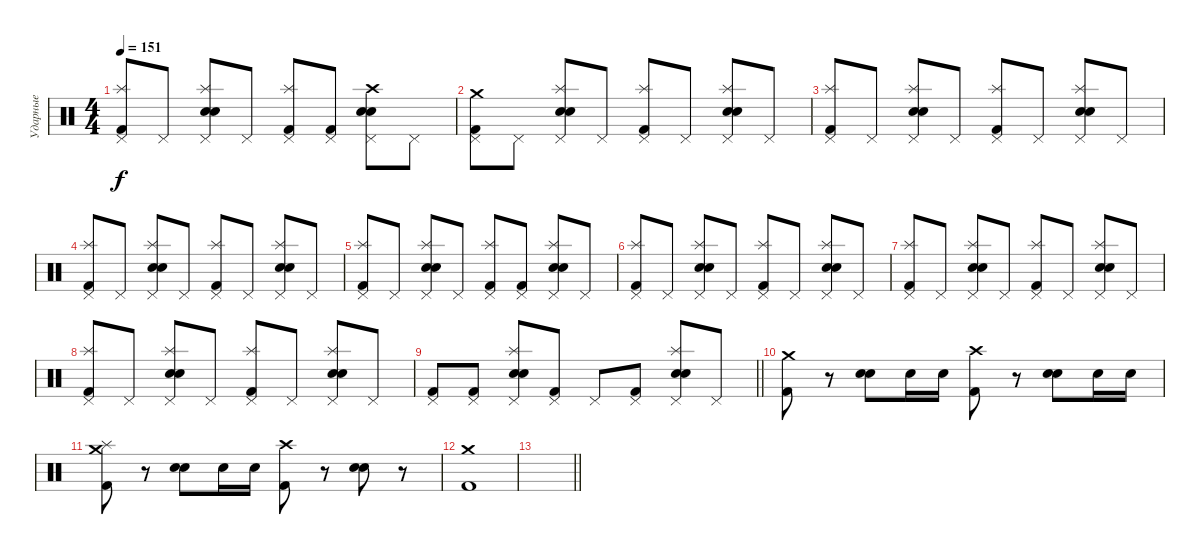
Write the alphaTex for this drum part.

\track ("Ударные" "Ударные") {instrument percussion}
\staff {score}
\articulation defaults
\ts (4 4)
\tempo 151
\clef neutral
\ks c
("Pedal Hi-Hat (hit)" "Splash (hit)" "Kick (hit) 2").8{dy f} "Pedal Hi-Hat (hit)".8 ("Pedal Hi-Hat (hit)" "Splash (hit)" "Electric Snare (hit)" "Snare (hit) 2").8 "Pedal Hi-Hat (hit)".8 ("Pedal Hi-Hat (hit)" "Splash (hit)" "Kick (hit) 2").8 ("Pedal Hi-Hat (hit)" "Kick (hit) 2").8 ("Pedal Hi-Hat (hit)" "Crash high (hit)" "Electric Snare (hit)" "Snare (hit) 2").8 "Pedal Hi-Hat (hit)".8 |
("Pedal Hi-Hat (hit)" "Crash medium (hit)" "Kick (hit) 2").8 "Pedal Hi-Hat (hit)".8 ("Pedal Hi-Hat (hit)" "Splash (hit)" "Electric Snare (hit)" "Snare (hit) 2").8 "Pedal Hi-Hat (hit)".8 ("Pedal Hi-Hat (hit)" "Splash (hit)" "Kick (hit) 2").8 "Pedal Hi-Hat (hit)".8 ("Pedal Hi-Hat (hit)" "Splash (hit)" "Electric Snare (hit)" "Snare (hit) 2").8 "Pedal Hi-Hat (hit)".8 |
("Pedal Hi-Hat (hit)" "Splash (hit)" "Kick (hit) 2").8 "Pedal Hi-Hat (hit)".8 ("Pedal Hi-Hat (hit)" "Splash (hit)" "Electric Snare (hit)" "Snare (hit) 2").8 "Pedal Hi-Hat (hit)".8 ("Pedal Hi-Hat (hit)" "Splash (hit)" "Kick (hit) 2").8 "Pedal Hi-Hat (hit)".8 ("Pedal Hi-Hat (hit)" "Splash (hit)" "Electric Snare (hit)" "Snare (hit) 2").8 "Pedal Hi-Hat (hit)".8 |
("Pedal Hi-Hat (hit)" "Splash (hit)" "Kick (hit) 2").8 "Pedal Hi-Hat (hit)".8 ("Pedal Hi-Hat (hit)" "Splash (hit)" "Electric Snare (hit)" "Snare (hit) 2").8 "Pedal Hi-Hat (hit)".8 ("Pedal Hi-Hat (hit)" "Splash (hit)" "Kick (hit) 2").8 "Pedal Hi-Hat (hit)".8 ("Pedal Hi-Hat (hit)" "Splash (hit)" "Electric Snare (hit)" "Snare (hit) 2").8 "Pedal Hi-Hat (hit)".8 |
("Pedal Hi-Hat (hit)" "Splash (hit)" "Kick (hit) 2").8 "Pedal Hi-Hat (hit)".8 ("Pedal Hi-Hat (hit)" "Splash (hit)" "Electric Snare (hit)" "Snare (hit) 2").8 "Pedal Hi-Hat (hit)".8 ("Pedal Hi-Hat (hit)" "Splash (hit)" "Kick (hit) 2").8 ("Pedal Hi-Hat (hit)" "Kick (hit) 2").8 ("Pedal Hi-Hat (hit)" "Splash (hit)" "Electric Snare (hit)" "Snare (hit) 2").8 "Pedal Hi-Hat (hit)".8 |
("Pedal Hi-Hat (hit)" "Splash (hit)" "Kick (hit) 2").8 "Pedal Hi-Hat (hit)".8 ("Pedal Hi-Hat (hit)" "Splash (hit)" "Electric Snare (hit)" "Snare (hit) 2").8 "Pedal Hi-Hat (hit)".8 ("Pedal Hi-Hat (hit)" "Splash (hit)" "Kick (hit) 2").8 "Pedal Hi-Hat (hit)".8 ("Pedal Hi-Hat (hit)" "Splash (hit)" "Electric Snare (hit)" "Snare (hit) 2").8 "Pedal Hi-Hat (hit)".8 |
("Pedal Hi-Hat (hit)" "Splash (hit)" "Kick (hit) 2").8 "Pedal Hi-Hat (hit)".8 ("Pedal Hi-Hat (hit)" "Splash (hit)" "Electric Snare (hit)" "Snare (hit) 2").8 "Pedal Hi-Hat (hit)".8 ("Pedal Hi-Hat (hit)" "Splash (hit)" "Kick (hit) 2").8 "Pedal Hi-Hat (hit)".8 ("Pedal Hi-Hat (hit)" "Splash (hit)" "Electric Snare (hit)" "Snare (hit) 2").8 "Pedal Hi-Hat (hit)".8 |
("Pedal Hi-Hat (hit)" "Splash (hit)" "Kick (hit) 2").8 "Pedal Hi-Hat (hit)".8 ("Pedal Hi-Hat (hit)" "Splash (hit)" "Electric Snare (hit)" "Snare (hit) 2").8 "Pedal Hi-Hat (hit)".8 ("Pedal Hi-Hat (hit)" "Splash (hit)" "Kick (hit) 2").8 "Pedal Hi-Hat (hit)".8 ("Pedal Hi-Hat (hit)" "Splash (hit)" "Electric Snare (hit)" "Snare (hit) 2").8 "Pedal Hi-Hat (hit)".8 |
\barLineRight lightlight
("Pedal Hi-Hat (hit)" "Kick (hit) 2").8 ("Pedal Hi-Hat (hit)" "Kick (hit) 2").8 ("Pedal Hi-Hat (hit)" "Splash (hit)" "Electric Snare (hit)" "Snare (hit) 2").8 ("Pedal Hi-Hat (hit)" "Kick (hit) 2").8 "Pedal Hi-Hat (hit)".8 ("Pedal Hi-Hat (hit)" "Kick (hit) 2").8 ("Pedal Hi-Hat (hit)" "Splash (hit)" "Electric Snare (hit)" "Snare (hit) 2").8 "Pedal Hi-Hat (hit)".8 |
("Crash medium (hit)" "Kick (hit) 2").8 r.8 ("Electric Snare (hit)" "Snare (hit) 2").8 "Electric Snare (hit)".16 "Electric Snare (hit)".16 ("Crash high (hit)" "Kick (hit) 2").8 r.8 ("Electric Snare (hit)" "Snare (hit) 2").8 "Electric Snare (hit)".16 "Electric Snare (hit)".16 |
("Splash (hit)" "Crash medium (hit)" "Kick (hit) 2").8 r.8 ("Electric Snare (hit)" "Snare (hit) 2").8 "Electric Snare (hit)".16 "Electric Snare (hit)".16 ("Crash high (hit)" "Kick (hit) 2").8 r.8 ("Electric Snare (hit)" "Snare (hit) 2").8 r.8 |
("Crash medium (hit)" "Kick (hit) 2").1 |
\barLineRight lightlight
